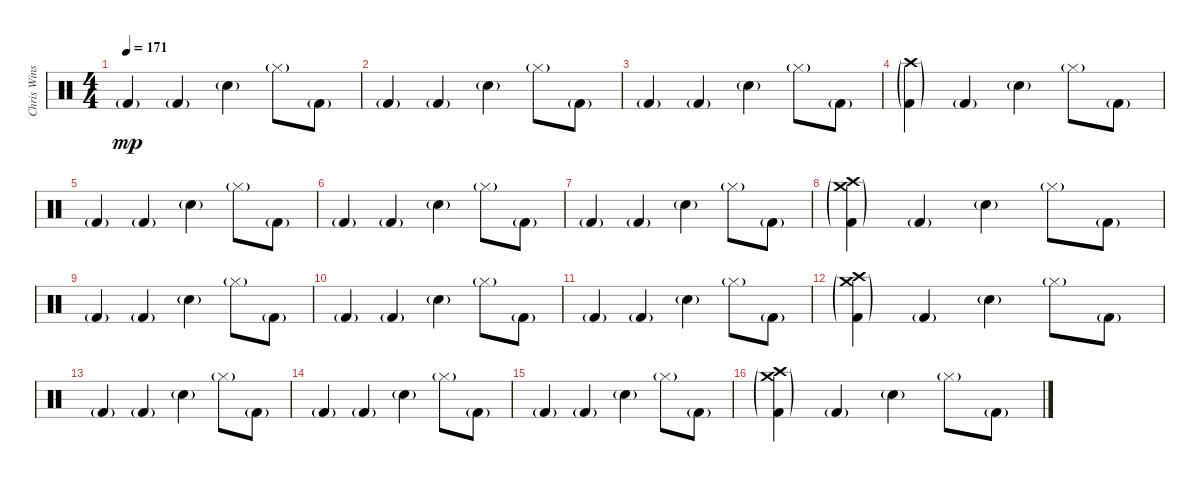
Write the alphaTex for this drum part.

\track ("Chris Winship (Drums)" "Chris Wins") {instrument percussion}
\staff {score}
\articulation defaults
\ts (4 4)
\tempo 171
\clef neutral
\ks c "Kick (hit) 2"{g}.4{dy mp} "Kick (hit) 2"{g}.4 "Snare (hit) 2"{g}.4 "Hi-Hat (closed)"{g}.8 "Kick (hit) 2"{g}.8
|
"Kick (hit) 2"{g}.4 "Kick (hit) 2"{g}.4 "Snare (hit) 2"{g}.4 "Hi-Hat (closed)"{g}.8 "Kick (hit) 2"{g}.8 |
"Kick (hit) 2"{g}.4 "Kick (hit) 2"{g}.4 "Snare (hit) 2"{g}.4 "Hi-Hat (closed)"{g}.8 "Kick (hit) 2"{g}.8 |
("Crash high (hit)"{g} "Kick (hit) 2"{g}).4 "Kick (hit) 2"{g}.4 "Snare (hit) 2"{g}.4 "Hi-Hat (closed)"{g}.8 "Kick (hit) 2"{g}.8 |
"Kick (hit) 2"{g}.4 "Kick (hit) 2"{g}.4 "Snare (hit) 2"{g}.4 "Hi-Hat (closed)"{g}.8 "Kick (hit) 2"{g}.8 |
"Kick (hit) 2"{g}.4 "Kick (hit) 2"{g}.4 "Snare (hit) 2"{g}.4 "Hi-Hat (closed)"{g}.8 "Kick (hit) 2"{g}.8 |
"Kick (hit) 2"{g}.4 "Kick (hit) 2"{g}.4 "Snare (hit) 2"{g}.4 "Hi-Hat (closed)"{g}.8 "Kick (hit) 2"{g}.8 |
("Crash medium (hit)"{g} "Crash high (hit)"{g} "Kick (hit) 2"{g}).4 "Kick (hit) 2"{g}.4 "Snare (hit) 2"{g}.4 "Hi-Hat (closed)"{g}.8 "Kick (hit) 2"{g}.8 |
"Kick (hit) 2"{g}.4 "Kick (hit) 2"{g}.4 "Snare (hit) 2"{g}.4 "Hi-Hat (closed)"{g}.8 "Kick (hit) 2"{g}.8 |
"Kick (hit) 2"{g}.4 "Kick (hit) 2"{g}.4 "Snare (hit) 2"{g}.4 "Hi-Hat (closed)"{g}.8 "Kick (hit) 2"{g}.8 |
"Kick (hit) 2"{g}.4 "Kick (hit) 2"{g}.4 "Snare (hit) 2"{g}.4 "Hi-Hat (closed)"{g}.8 "Kick (hit) 2"{g}.8 |
("Crash medium (hit)"{g} "Crash high (hit)"{g} "Kick (hit) 2"{g}).4 "Kick (hit) 2"{g}.4 "Snare (hit) 2"{g}.4 "Hi-Hat (closed)"{g}.8 "Kick (hit) 2"{g}.8 |
"Kick (hit) 2"{g}.4 "Kick (hit) 2"{g}.4 "Snare (hit) 2"{g}.4 "Hi-Hat (closed)"{g}.8 "Kick (hit) 2"{g}.8 |
"Kick (hit) 2"{g}.4 "Kick (hit) 2"{g}.4 "Snare (hit) 2"{g}.4 "Hi-Hat (closed)"{g}.8 "Kick (hit) 2"{g}.8 |
"Kick (hit) 2"{g}.4 "Kick (hit) 2"{g}.4 "Snare (hit) 2"{g}.4 "Hi-Hat (closed)"{g}.8 "Kick (hit) 2"{g}.8 |
("Crash medium (hit)"{g} "Crash high (hit)"{g} "Kick (hit) 2"{g}).4 "Kick (hit) 2"{g}.4 "Snare (hit) 2"{g}.4 "Hi-Hat (closed)"{g}.8 "Kick (hit) 2"{g}.8
